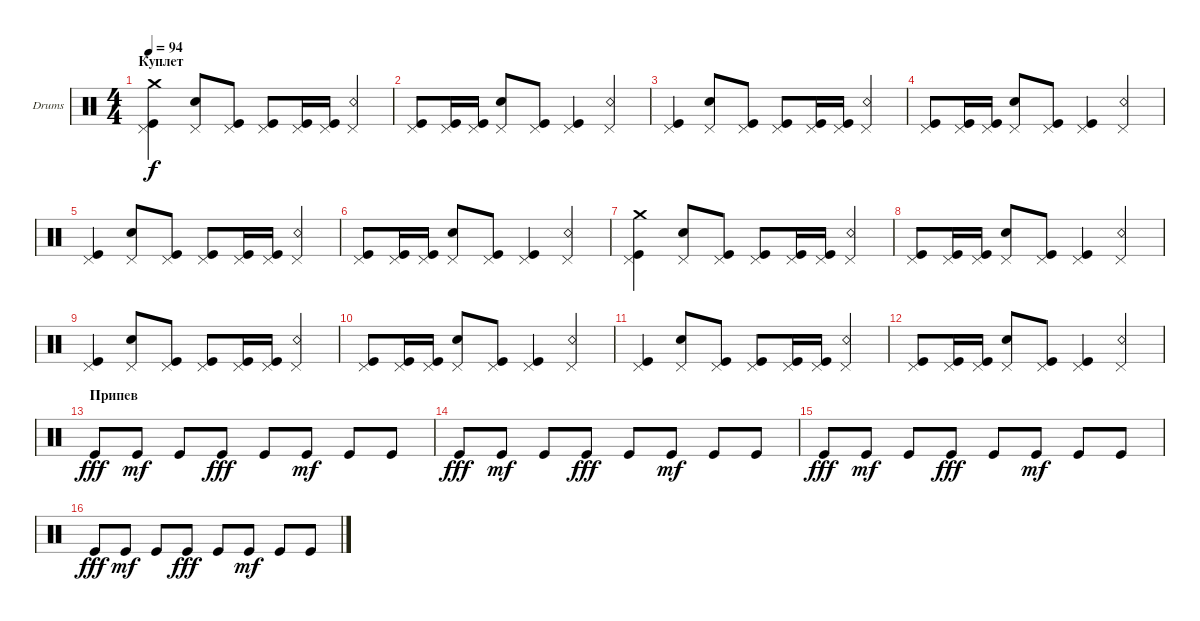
\defaultSystemsLayout 4
\bracketExtendMode groupsimilarinstruments
\firstSystemTrackNameOrientation horizontal
\otherSystemsTrackNameOrientation horizontal
\track ("Е. Кулаков" "Drums") {instrument percussion}
\staff {score}
\articulation defaults
\ts (4 4)
\section ("" "Куплет")
\tempo 94
\clef neutral
\ks c
("Kick (hit)" "Pedal Hi-Hat (hit)" "Crash medium (hit)").4{dy f} ("Snare (hit) 2" "Pedal Hi-Hat (hit)").8 ("Kick (hit)" "Pedal Hi-Hat (hit)").8 ("Kick (hit)" "Pedal Hi-Hat (hit)").8 ("Kick (hit)" "Pedal Hi-Hat (hit)").16 ("Kick (hit)" "Pedal Hi-Hat (hit)").16 ("Snare (rim shot)" "Pedal Hi-Hat (hit)").4 |
("Kick (hit)" "Pedal Hi-Hat (hit)").8 ("Pedal Hi-Hat (hit)" "Kick (hit)").16 ("Pedal Hi-Hat (hit)" "Kick (hit)").16 ("Snare (hit) 2" "Pedal Hi-Hat (hit)").8 ("Kick (hit)" "Pedal Hi-Hat (hit)").8 ("Kick (hit)" "Pedal Hi-Hat (hit)").4 ("Snare (rim shot)" "Pedal Hi-Hat (hit)").4 |
("Kick (hit)" "Pedal Hi-Hat (hit)").4 ("Snare (hit) 2" "Pedal Hi-Hat (hit)").8 ("Kick (hit)" "Pedal Hi-Hat (hit)").8 ("Kick (hit)" "Pedal Hi-Hat (hit)").8 ("Kick (hit)" "Pedal Hi-Hat (hit)").16 ("Kick (hit)" "Pedal Hi-Hat (hit)").16 ("Snare (rim shot)" "Pedal Hi-Hat (hit)").4 |
("Kick (hit)" "Pedal Hi-Hat (hit)").8 ("Pedal Hi-Hat (hit)" "Kick (hit)").16 ("Pedal Hi-Hat (hit)" "Kick (hit)").16 ("Snare (hit) 2" "Pedal Hi-Hat (hit)").8 ("Kick (hit)" "Pedal Hi-Hat (hit)").8 ("Kick (hit)" "Pedal Hi-Hat (hit)").4 ("Snare (rim shot)" "Pedal Hi-Hat (hit)").4 |
("Kick (hit)" "Pedal Hi-Hat (hit)").4 ("Snare (hit) 2" "Pedal Hi-Hat (hit)").8 ("Kick (hit)" "Pedal Hi-Hat (hit)").8 ("Kick (hit)" "Pedal Hi-Hat (hit)").8 ("Kick (hit)" "Pedal Hi-Hat (hit)").16 ("Kick (hit)" "Pedal Hi-Hat (hit)").16 ("Snare (rim shot)" "Pedal Hi-Hat (hit)").4 |
("Kick (hit)" "Pedal Hi-Hat (hit)").8 ("Pedal Hi-Hat (hit)" "Kick (hit)").16 ("Pedal Hi-Hat (hit)" "Kick (hit)").16 ("Snare (hit) 2" "Pedal Hi-Hat (hit)").8 ("Kick (hit)" "Pedal Hi-Hat (hit)").8 ("Kick (hit)" "Pedal Hi-Hat (hit)").4 ("Snare (rim shot)" "Pedal Hi-Hat (hit)").4 |
("Kick (hit)" "Pedal Hi-Hat (hit)" "Crash medium (hit)").4 ("Snare (hit) 2" "Pedal Hi-Hat (hit)").8 ("Kick (hit)" "Pedal Hi-Hat (hit)").8 ("Kick (hit)" "Pedal Hi-Hat (hit)").8 ("Kick (hit)" "Pedal Hi-Hat (hit)").16 ("Kick (hit)" "Pedal Hi-Hat (hit)").16 ("Snare (rim shot)" "Pedal Hi-Hat (hit)").4 |
("Kick (hit)" "Pedal Hi-Hat (hit)").8 ("Pedal Hi-Hat (hit)" "Kick (hit)").16 ("Pedal Hi-Hat (hit)" "Kick (hit)").16 ("Snare (hit) 2" "Pedal Hi-Hat (hit)").8 ("Kick (hit)" "Pedal Hi-Hat (hit)").8 ("Kick (hit)" "Pedal Hi-Hat (hit)").4 ("Snare (rim shot)" "Pedal Hi-Hat (hit)").4 |
("Kick (hit)" "Pedal Hi-Hat (hit)").4 ("Snare (hit) 2" "Pedal Hi-Hat (hit)").8 ("Kick (hit)" "Pedal Hi-Hat (hit)").8 ("Kick (hit)" "Pedal Hi-Hat (hit)").8 ("Kick (hit)" "Pedal Hi-Hat (hit)").16 ("Kick (hit)" "Pedal Hi-Hat (hit)").16 ("Snare (rim shot)" "Pedal Hi-Hat (hit)").4 |
("Kick (hit)" "Pedal Hi-Hat (hit)").8 ("Pedal Hi-Hat (hit)" "Kick (hit)").16 ("Pedal Hi-Hat (hit)" "Kick (hit)").16 ("Snare (hit) 2" "Pedal Hi-Hat (hit)").8 ("Kick (hit)" "Pedal Hi-Hat (hit)").8 ("Kick (hit)" "Pedal Hi-Hat (hit)").4 ("Snare (rim shot)" "Pedal Hi-Hat (hit)").4 |
("Kick (hit)" "Pedal Hi-Hat (hit)").4 ("Snare (hit) 2" "Pedal Hi-Hat (hit)").8 ("Kick (hit)" "Pedal Hi-Hat (hit)").8 ("Kick (hit)" "Pedal Hi-Hat (hit)").8 ("Kick (hit)" "Pedal Hi-Hat (hit)").16 ("Kick (hit)" "Pedal Hi-Hat (hit)").16 ("Snare (rim shot)" "Pedal Hi-Hat (hit)").4 |
("Kick (hit)" "Pedal Hi-Hat (hit)").8 ("Pedal Hi-Hat (hit)" "Kick (hit)").16 ("Pedal Hi-Hat (hit)" "Kick (hit)").16 ("Snare (hit) 2" "Pedal Hi-Hat (hit)").8 ("Kick (hit)" "Pedal Hi-Hat (hit)").8 ("Kick (hit)" "Pedal Hi-Hat (hit)").4 ("Snare (rim shot)" "Pedal Hi-Hat (hit)").4 |
\section ("" "Припев")
"Kick (hit)".8{dy fff} "Kick (hit)".8{dy mf} "Kick (hit)".8 "Kick (hit)".8{dy fff} "Kick (hit)".8 "Kick (hit)".8{dy mf} "Kick (hit)".8 "Kick (hit)".8 |
"Kick (hit)".8{dy fff} "Kick (hit)".8{dy mf} "Kick (hit)".8 "Kick (hit)".8{dy fff} "Kick (hit)".8 "Kick (hit)".8{dy mf} "Kick (hit)".8 "Kick (hit)".8 |
"Kick (hit)".8{dy fff} "Kick (hit)".8{dy mf} "Kick (hit)".8 "Kick (hit)".8{dy fff} "Kick (hit)".8 "Kick (hit)".8{dy mf} "Kick (hit)".8 "Kick (hit)".8 |
"Kick (hit)".8{dy fff} "Kick (hit)".8{dy mf} "Kick (hit)".8 "Kick (hit)".8{dy fff} "Kick (hit)".8 "Kick (hit)".8{dy mf} "Kick (hit)".8 "Kick (hit)".8
